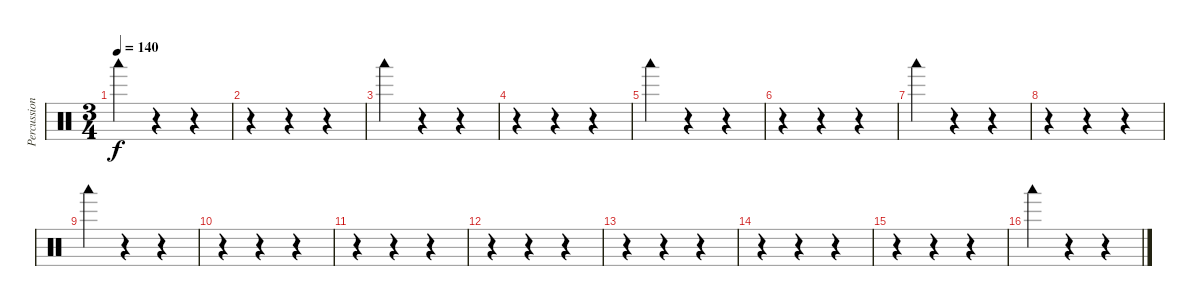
\track ("Percussions" "Percussion") {instrument percussion}
\staff {score}
\articulation defaults
\ts (3 4)
\tempo 140
\clef neutral
\ks c "Woodblock low (hit)".4{dy f}
r.4 r.4 |
r.4 r.4 r.4 |
"Woodblock low (hit)".4 r.4 r.4 |
r.4 r.4 r.4 |
"Woodblock low (hit)".4 r.4 r.4 |
r.4 r.4 r.4 |
"Woodblock low (hit)".4 r.4 r.4 |
r.4 r.4 r.4 |
"Woodblock low (hit)".4 r.4 r.4 |
r.4 r.4 r.4 |
r.4 r.4 r.4 |
r.4 r.4 r.4 |
r.4 r.4 r.4 |
r.4 r.4 r.4 |
r.4 r.4 r.4 |
"Woodblock low (hit)".4 r.4 r.4
